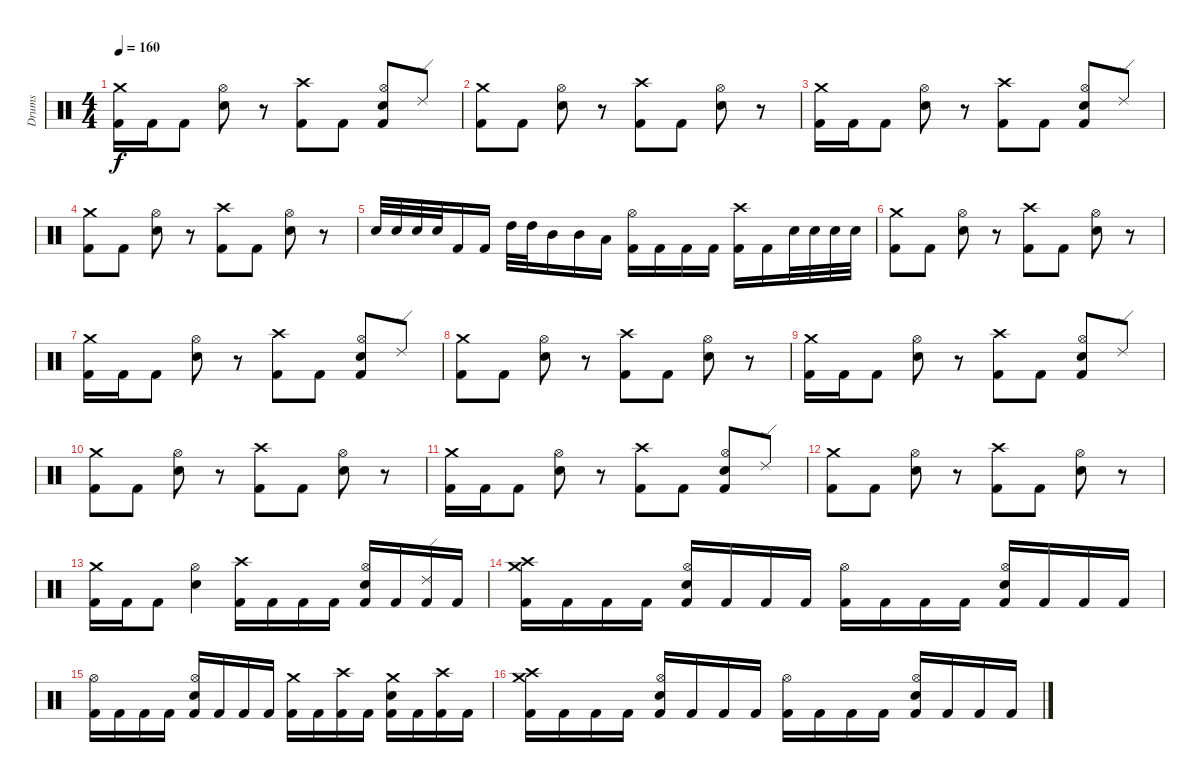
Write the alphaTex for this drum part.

\track ("Drums" "Drums") {instrument percussion}
\staff {score}
\articulation defaults
\ts (4 4)
\tempo 160
\clef neutral
\ks c
("Crash medium (hit)" "Kick (hit) 2").16{dy f} "Kick (hit) 2".16 "Kick (hit) 2".8 ("Hi-Hat (open)" "Snare (hit) 2").8 r.8 ("Crash high (hit)" "Kick (hit) 2").8 "Kick (hit) 2".8 ("Hi-Hat (open)" "Kick (hit) 2" "Snare (hit) 2").8 "Ride (edge) 2".8 |
("Crash medium (hit)" "Kick (hit) 2").8 "Kick (hit) 2".8 ("Hi-Hat (open)" "Snare (hit) 2").8 r.8 ("Crash high (hit)" "Kick (hit) 2").8 "Kick (hit) 2".8 ("Hi-Hat (open)" "Snare (hit) 2").8 r.8 |
("Crash medium (hit)" "Kick (hit) 2").16 "Kick (hit) 2".16 "Kick (hit) 2".8 ("Hi-Hat (open)" "Snare (hit) 2").8 r.8 ("Crash high (hit)" "Kick (hit) 2").8 "Kick (hit) 2".8 ("Hi-Hat (open)" "Kick (hit) 2" "Snare (hit) 2").8 "Ride (edge) 2".8 |
("Crash medium (hit)" "Kick (hit) 2").8 "Kick (hit) 2".8 ("Hi-Hat (open)" "Snare (hit) 2").8 r.8 ("Crash high (hit)" "Kick (hit) 2").8 "Kick (hit) 2".8 ("Hi-Hat (open)" "Snare (hit) 2").8 r.8 |
"Snare (hit) 2".32 "Snare (hit) 2".32 "Snare (hit) 2".32 "Snare (hit) 2".32 "Kick (hit) 2".16 "Kick (hit) 2".16 "High Tom (hit)".32 "High Tom (hit)".32 "Mid Tom (hit)".16 "Mid Tom (hit)".16 "Low Tom (hit)".16 ("Hi-Hat (open)" "Kick (hit) 2").16 "Kick (hit) 2".16 "Kick (hit) 2".16 "Kick (hit) 2".16 ("Crash high (hit)" "Kick (hit) 2").16 "Kick (hit) 2".16 "Snare (hit) 2".32 "Snare (hit) 2".32 "Snare (hit) 2".32 "Snare (hit) 2".32 |
("Crash medium (hit)" "Kick (hit) 2").8 "Kick (hit) 2".8 ("Hi-Hat (open)" "Snare (hit) 2").8 r.8 ("Crash high (hit)" "Kick (hit) 2").8 "Kick (hit) 2".8 ("Hi-Hat (open)" "Snare (hit) 2").8 r.8 |
("Crash medium (hit)" "Kick (hit) 2").16 "Kick (hit) 2".16 "Kick (hit) 2".8 ("Hi-Hat (open)" "Snare (hit) 2").8 r.8 ("Crash high (hit)" "Kick (hit) 2").8 "Kick (hit) 2".8 ("Hi-Hat (open)" "Kick (hit) 2" "Snare (hit) 2").8 "Ride (edge) 2".8 |
("Crash medium (hit)" "Kick (hit) 2").8 "Kick (hit) 2".8 ("Hi-Hat (open)" "Snare (hit) 2").8 r.8 ("Crash high (hit)" "Kick (hit) 2").8 "Kick (hit) 2".8 ("Hi-Hat (open)" "Snare (hit) 2").8 r.8 |
("Crash medium (hit)" "Kick (hit) 2").16 "Kick (hit) 2".16 "Kick (hit) 2".8 ("Hi-Hat (open)" "Snare (hit) 2").8 r.8 ("Crash high (hit)" "Kick (hit) 2").8 "Kick (hit) 2".8 ("Hi-Hat (open)" "Kick (hit) 2" "Snare (hit) 2").8 "Ride (edge) 2".8 |
("Crash medium (hit)" "Kick (hit) 2").8 "Kick (hit) 2".8 ("Hi-Hat (open)" "Snare (hit) 2").8 r.8 ("Crash high (hit)" "Kick (hit) 2").8 "Kick (hit) 2".8 ("Hi-Hat (open)" "Snare (hit) 2").8 r.8 |
("Crash medium (hit)" "Kick (hit) 2").16 "Kick (hit) 2".16 "Kick (hit) 2".8 ("Hi-Hat (open)" "Snare (hit) 2").8 r.8 ("Crash high (hit)" "Kick (hit) 2").8 "Kick (hit) 2".8 ("Hi-Hat (open)" "Kick (hit) 2" "Snare (hit) 2").8 "Ride (edge) 2".8 |
("Crash medium (hit)" "Kick (hit) 2").8 "Kick (hit) 2".8 ("Hi-Hat (open)" "Snare (hit) 2").8 r.8 ("Crash high (hit)" "Kick (hit) 2").8 "Kick (hit) 2".8 ("Hi-Hat (open)" "Snare (hit) 2").8 r.8 |
("Crash medium (hit)" "Kick (hit) 2").16 "Kick (hit) 2".16 "Kick (hit) 2".8 ("Hi-Hat (open)" "Snare (hit) 2").4 ("Crash high (hit)" "Kick (hit) 2").16 "Kick (hit) 2".16 "Kick (hit) 2".16 "Kick (hit) 2".16 ("Hi-Hat (open)" "Kick (hit) 2" "Snare (hit) 2").16 "Kick (hit) 2".16 ("Ride (edge) 2" "Kick (hit) 2").16 "Kick (hit) 2".16 |
("Crash medium (hit)" "Crash high (hit)" "Kick (hit) 2").16 "Kick (hit) 2".16 "Kick (hit) 2".16 "Kick (hit) 2".16 ("Hi-Hat (open)" "Kick (hit) 2" "Snare (hit) 2").16 "Kick (hit) 2".16 "Kick (hit) 2".16 "Kick (hit) 2".16 ("Hi-Hat (open)" "Kick (hit) 2").16 "Kick (hit) 2".16 "Kick (hit) 2".16 "Kick (hit) 2".16 ("Hi-Hat (open)" "Kick (hit) 2" "Snare (hit) 2").16 "Kick (hit) 2".16 "Kick (hit) 2".16 "Kick (hit) 2".16 |
("Hi-Hat (open)" "Kick (hit) 2").16 "Kick (hit) 2".16 "Kick (hit) 2".16 "Kick (hit) 2".16 ("Hi-Hat (open)" "Kick (hit) 2" "Snare (hit) 2").16 "Kick (hit) 2".16 "Kick (hit) 2".16 "Kick (hit) 2".16 ("Crash medium (hit)" "Kick (hit) 2").16 "Kick (hit) 2".16 ("Crash high (hit)" "Kick (hit) 2").16 "Kick (hit) 2".16 ("Crash medium (hit)" "Kick (hit) 2" "Snare (hit) 2").16 "Kick (hit) 2".16 ("Crash high (hit)" "Kick (hit) 2").16 "Kick (hit) 2".16 |
("Crash medium (hit)" "Crash high (hit)" "Kick (hit) 2").16 "Kick (hit) 2".16 "Kick (hit) 2".16 "Kick (hit) 2".16 ("Hi-Hat (open)" "Kick (hit) 2" "Snare (hit) 2").16 "Kick (hit) 2".16 "Kick (hit) 2".16 "Kick (hit) 2".16 ("Hi-Hat (open)" "Kick (hit) 2").16 "Kick (hit) 2".16 "Kick (hit) 2".16 "Kick (hit) 2".16 ("Hi-Hat (open)" "Kick (hit) 2" "Snare (hit) 2").16 "Kick (hit) 2".16 "Kick (hit) 2".16 "Kick (hit) 2".16
